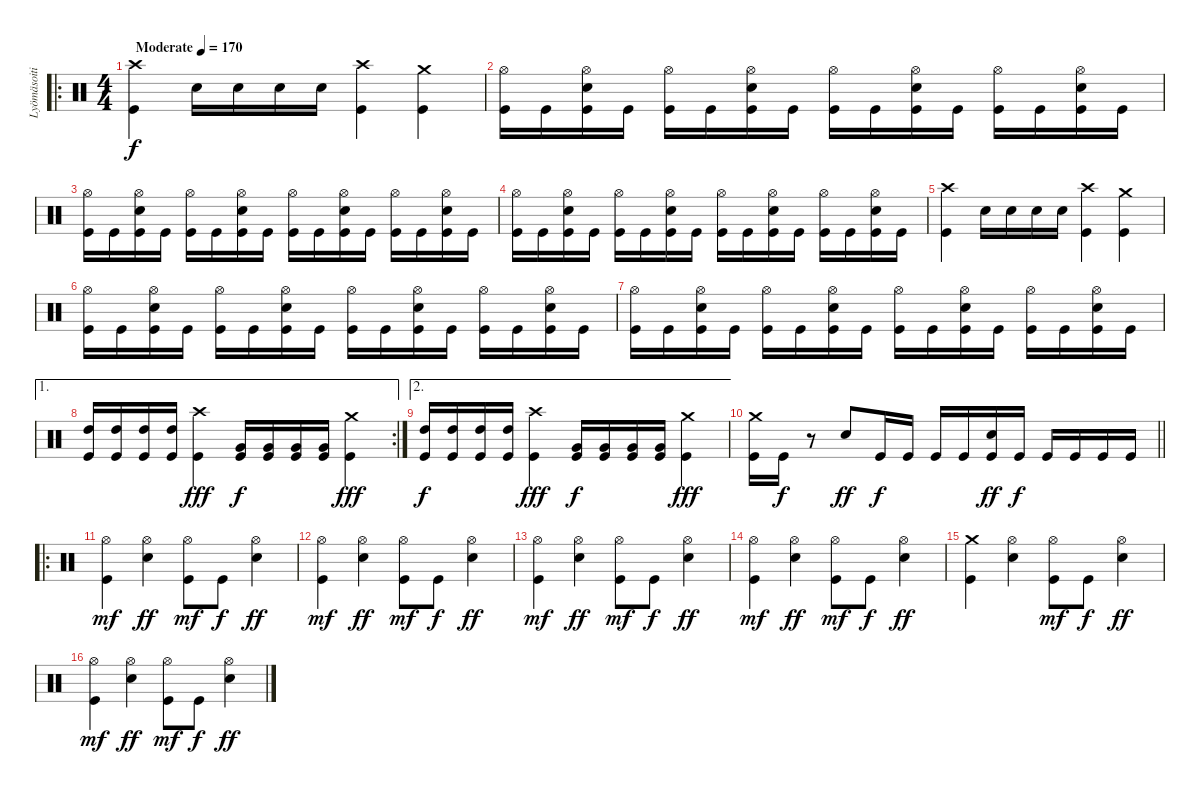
\track ("Lyömäsoitin" "Lyömäsoiti") {instrument percussion}
\staff {score}
\articulation defaults
\ro
\ts (4 4)
\section ("" "")
\tempo (170 "Moderate")
\clef neutral
\ks c
("Kick (hit)" "Crash high (hit)").4{dy f} "Electric Snare (hit)".16 "Electric Snare (hit)".16 "Electric Snare (hit)".16 "Electric Snare (hit)".16 ("Crash high (hit)" "Kick (hit)").4 ("Crash medium (hit)" "Kick (hit)").4 |
("Hi-Hat (open)" "Kick (hit)").16 "Kick (hit)".16 ("Hi-Hat (open)" "Electric Snare (hit)" "Kick (hit)").16 "Kick (hit)".16 ("Hi-Hat (open)" "Kick (hit)").16 "Kick (hit)".16 ("Hi-Hat (open)" "Electric Snare (hit)" "Kick (hit)").16 "Kick (hit)".16 ("Hi-Hat (open)" "Kick (hit)").16 "Kick (hit)".16 ("Hi-Hat (open)" "Electric Snare (hit)" "Kick (hit)").16 "Kick (hit)".16 ("Hi-Hat (open)" "Kick (hit)").16 "Kick (hit)".16 ("Hi-Hat (open)" "Electric Snare (hit)" "Kick (hit)").16 "Kick (hit)".16 |
("Hi-Hat (open)" "Kick (hit)").16 "Kick (hit)".16 ("Hi-Hat (open)" "Electric Snare (hit)" "Kick (hit)").16 "Kick (hit)".16 ("Hi-Hat (open)" "Kick (hit)").16 "Kick (hit)".16 ("Hi-Hat (open)" "Electric Snare (hit)" "Kick (hit)").16 "Kick (hit)".16 ("Hi-Hat (open)" "Kick (hit)").16 "Kick (hit)".16 ("Hi-Hat (open)" "Electric Snare (hit)" "Kick (hit)").16 "Kick (hit)".16 ("Hi-Hat (open)" "Kick (hit)").16 "Kick (hit)".16 ("Hi-Hat (open)" "Electric Snare (hit)" "Kick (hit)").16 "Kick (hit)".16 |
("Hi-Hat (open)" "Kick (hit)").16 "Kick (hit)".16 ("Hi-Hat (open)" "Electric Snare (hit)" "Kick (hit)").16 "Kick (hit)".16 ("Hi-Hat (open)" "Kick (hit)").16 "Kick (hit)".16 ("Hi-Hat (open)" "Electric Snare (hit)" "Kick (hit)").16 "Kick (hit)".16 ("Hi-Hat (open)" "Kick (hit)").16 "Kick (hit)".16 ("Hi-Hat (open)" "Electric Snare (hit)" "Kick (hit)").16 "Kick (hit)".16 ("Hi-Hat (open)" "Kick (hit)").16 "Kick (hit)".16 ("Hi-Hat (open)" "Electric Snare (hit)" "Kick (hit)").16 "Kick (hit)".16 |
("Kick (hit)" "Crash high (hit)").4 "Electric Snare (hit)".16 "Electric Snare (hit)".16 "Electric Snare (hit)".16 "Electric Snare (hit)".16 ("Crash high (hit)" "Kick (hit)").4 ("Crash medium (hit)" "Kick (hit)").4 |
("Hi-Hat (open)" "Kick (hit)").16 "Kick (hit)".16 ("Hi-Hat (open)" "Electric Snare (hit)" "Kick (hit)").16 "Kick (hit)".16 ("Hi-Hat (open)" "Kick (hit)").16 "Kick (hit)".16 ("Hi-Hat (open)" "Electric Snare (hit)" "Kick (hit)").16 "Kick (hit)".16 ("Hi-Hat (open)" "Kick (hit)").16 "Kick (hit)".16 ("Hi-Hat (open)" "Electric Snare (hit)" "Kick (hit)").16 "Kick (hit)".16 ("Hi-Hat (open)" "Kick (hit)").16 "Kick (hit)".16 ("Hi-Hat (open)" "Electric Snare (hit)" "Kick (hit)").16 "Kick (hit)".16 |
("Hi-Hat (open)" "Kick (hit)").16 "Kick (hit)".16 ("Hi-Hat (open)" "Electric Snare (hit)" "Kick (hit)").16 "Kick (hit)".16 ("Hi-Hat (open)" "Kick (hit)").16 "Kick (hit)".16 ("Hi-Hat (open)" "Electric Snare (hit)" "Kick (hit)").16 "Kick (hit)".16 ("Hi-Hat (open)" "Kick (hit)").16 "Kick (hit)".16 ("Hi-Hat (open)" "Electric Snare (hit)" "Kick (hit)").16 "Kick (hit)".16 ("Hi-Hat (open)" "Kick (hit)").16 "Kick (hit)".16 ("Hi-Hat (open)" "Electric Snare (hit)" "Kick (hit)").16 "Kick (hit)".16 |
\ae 1
\rc 2
("High Tom (hit)" "Kick (hit)").16 ("High Tom (hit)" "Kick (hit)").16 ("High Tom (hit)" "Kick (hit)").16 ("High Tom (hit)" "Kick (hit)").16 ("Crash high (hit)" "Kick (hit)").4{dy fff} ("Very Low Tom (hit)" "Kick (hit)").16{dy f} ("Very Low Tom (hit)" "Kick (hit)").16 ("Very Low Tom (hit)" "Kick (hit)").16 ("Very Low Tom (hit)" "Kick (hit)").16 ("Crash medium (hit)" "Kick (hit)").4{dy fff} |
\ae 2
("High Tom (hit)" "Kick (hit)").16{dy f} ("High Tom (hit)" "Kick (hit)").16 ("High Tom (hit)" "Kick (hit)").16 ("High Tom (hit)" "Kick (hit)").16 ("Crash high (hit)" "Kick (hit)").4{dy fff} ("Very Low Tom (hit)" "Kick (hit)").16{dy f} ("Very Low Tom (hit)" "Kick (hit)").16 ("Very Low Tom (hit)" "Kick (hit)").16 ("Very Low Tom (hit)" "Kick (hit)").16 ("Crash medium (hit)" "Kick (hit)").4{dy fff} |
\barLineRight lightlight
("Crash medium (hit)" "Kick (hit)").16 "Kick (hit)".16{dy f} r.8 "Electric Snare (hit)".8{dy ff} "Kick (hit)".16{dy f} "Kick (hit)".16 "Kick (hit)".16 "Kick (hit)".16 ("Electric Snare (hit)" "Kick (hit)").16{dy ff} "Kick (hit)".16{dy f} "Kick (hit)".16 "Kick (hit)".16 "Kick (hit)".16 "Kick (hit)".16 |
\ro
\section ("" "")
("Hi-Hat (open)" "Kick (hit)").4{dy mf} ("Hi-Hat (open)" "Electric Snare (hit)").4{dy ff} ("Hi-Hat (open)" "Kick (hit)").8{dy mf} "Kick (hit)".8{dy f} ("Hi-Hat (open)" "Electric Snare (hit)").4{dy ff} |
("Hi-Hat (open)" "Kick (hit)").4{dy mf} ("Hi-Hat (open)" "Electric Snare (hit)").4{dy ff} ("Hi-Hat (open)" "Kick (hit)").8{dy mf} "Kick (hit)".8{dy f} ("Hi-Hat (open)" "Electric Snare (hit)").4{dy ff} |
("Hi-Hat (open)" "Kick (hit)").4{dy mf} ("Hi-Hat (open)" "Electric Snare (hit)").4{dy ff} ("Hi-Hat (open)" "Kick (hit)").8{dy mf} "Kick (hit)".8{dy f} ("Hi-Hat (open)" "Electric Snare (hit)").4{dy ff} |
("Hi-Hat (open)" "Kick (hit)").4{dy mf} ("Hi-Hat (open)" "Electric Snare (hit)").4{dy ff} ("Hi-Hat (open)" "Kick (hit)").8{dy mf} "Kick (hit)".8{dy f} ("Hi-Hat (open)" "Electric Snare (hit)").4{dy ff} |
("Crash medium (hit)" "Kick (hit)").4 ("Hi-Hat (open)" "Electric Snare (hit)").4 ("Hi-Hat (open)" "Kick (hit)").8{dy mf} "Kick (hit)".8{dy f} ("Hi-Hat (open)" "Electric Snare (hit)").4{dy ff} |
("Hi-Hat (open)" "Kick (hit)").4{dy mf} ("Hi-Hat (open)" "Electric Snare (hit)").4{dy ff} ("Hi-Hat (open)" "Kick (hit)").8{dy mf} "Kick (hit)".8{dy f} ("Hi-Hat (open)" "Electric Snare (hit)").4{dy ff}
